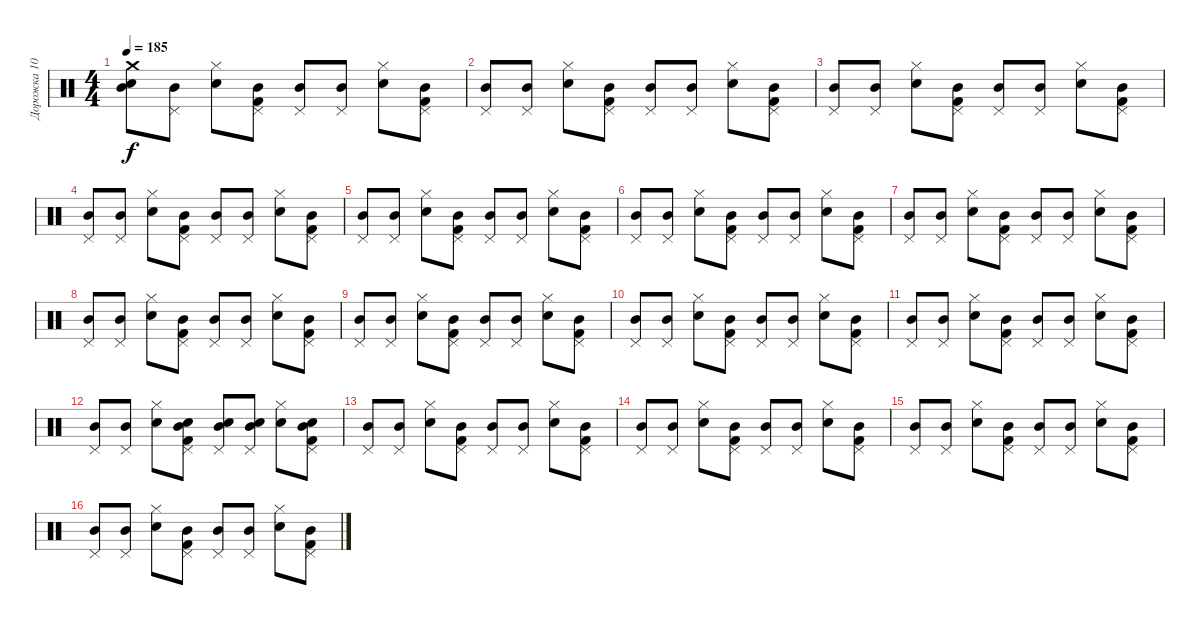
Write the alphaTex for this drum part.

\track ("Дорожка 10" "Дорожка 10") {instrument percussion}
\staff {score}
\articulation defaults
\ts (4 4)
\tempo 185
\clef neutral
\ks c
("Snare (hit) 2" "Mid Tom (hit)" "Crash medium (hit)").8{dy f} ("Mid Tom (hit)" "Pedal Hi-Hat (hit)").8 ("Snare (hit) 2" "Hi-Hat (closed)").8 ("Kick (hit) 2" "Mid Tom (hit)" "Pedal Hi-Hat (hit)").8 ("Mid Tom (hit)" "Pedal Hi-Hat (hit)").8 ("Mid Tom (hit)" "Pedal Hi-Hat (hit)").8 ("Snare (hit) 2" "Hi-Hat (closed)").8 ("Kick (hit) 2" "Mid Tom (hit)" "Pedal Hi-Hat (hit)").8 |
("Mid Tom (hit)" "Pedal Hi-Hat (hit)").8 ("Mid Tom (hit)" "Pedal Hi-Hat (hit)").8 ("Snare (hit) 2" "Hi-Hat (closed)").8 ("Kick (hit) 2" "Mid Tom (hit)" "Pedal Hi-Hat (hit)").8 ("Mid Tom (hit)" "Pedal Hi-Hat (hit)").8 ("Mid Tom (hit)" "Pedal Hi-Hat (hit)").8 ("Snare (hit) 2" "Hi-Hat (closed)").8 ("Kick (hit) 2" "Mid Tom (hit)" "Pedal Hi-Hat (hit)").8 |
("Mid Tom (hit)" "Pedal Hi-Hat (hit)").8 ("Mid Tom (hit)" "Pedal Hi-Hat (hit)").8 ("Snare (hit) 2" "Hi-Hat (closed)").8 ("Kick (hit) 2" "Mid Tom (hit)" "Pedal Hi-Hat (hit)").8 ("Mid Tom (hit)" "Pedal Hi-Hat (hit)").8 ("Mid Tom (hit)" "Pedal Hi-Hat (hit)").8 ("Snare (hit) 2" "Hi-Hat (closed)").8 ("Kick (hit) 2" "Mid Tom (hit)" "Pedal Hi-Hat (hit)").8 |
("Mid Tom (hit)" "Pedal Hi-Hat (hit)").8 ("Mid Tom (hit)" "Pedal Hi-Hat (hit)").8 ("Snare (hit) 2" "Hi-Hat (closed)").8 ("Kick (hit) 2" "Mid Tom (hit)" "Pedal Hi-Hat (hit)").8 ("Mid Tom (hit)" "Pedal Hi-Hat (hit)").8 ("Mid Tom (hit)" "Pedal Hi-Hat (hit)").8 ("Snare (hit) 2" "Hi-Hat (closed)").8 ("Kick (hit) 2" "Mid Tom (hit)" "Pedal Hi-Hat (hit)").8 |
("Mid Tom (hit)" "Pedal Hi-Hat (hit)").8 ("Mid Tom (hit)" "Pedal Hi-Hat (hit)").8 ("Snare (hit) 2" "Hi-Hat (closed)").8 ("Kick (hit) 2" "Mid Tom (hit)" "Pedal Hi-Hat (hit)").8 ("Mid Tom (hit)" "Pedal Hi-Hat (hit)").8 ("Mid Tom (hit)" "Pedal Hi-Hat (hit)").8 ("Snare (hit) 2" "Hi-Hat (closed)").8 ("Kick (hit) 2" "Mid Tom (hit)" "Pedal Hi-Hat (hit)").8 |
("Mid Tom (hit)" "Pedal Hi-Hat (hit)").8 ("Mid Tom (hit)" "Pedal Hi-Hat (hit)").8 ("Snare (hit) 2" "Hi-Hat (closed)").8 ("Kick (hit) 2" "Mid Tom (hit)" "Pedal Hi-Hat (hit)").8 ("Mid Tom (hit)" "Pedal Hi-Hat (hit)").8 ("Mid Tom (hit)" "Pedal Hi-Hat (hit)").8 ("Snare (hit) 2" "Hi-Hat (closed)").8 ("Kick (hit) 2" "Mid Tom (hit)" "Pedal Hi-Hat (hit)").8 |
("Mid Tom (hit)" "Pedal Hi-Hat (hit)").8 ("Mid Tom (hit)" "Pedal Hi-Hat (hit)").8 ("Snare (hit) 2" "Hi-Hat (closed)").8 ("Kick (hit) 2" "Mid Tom (hit)" "Pedal Hi-Hat (hit)").8 ("Mid Tom (hit)" "Pedal Hi-Hat (hit)").8 ("Mid Tom (hit)" "Pedal Hi-Hat (hit)").8 ("Snare (hit) 2" "Hi-Hat (closed)").8 ("Kick (hit) 2" "Mid Tom (hit)" "Pedal Hi-Hat (hit)").8 |
("Mid Tom (hit)" "Pedal Hi-Hat (hit)").8 ("Mid Tom (hit)" "Pedal Hi-Hat (hit)").8 ("Snare (hit) 2" "Hi-Hat (closed)").8 ("Kick (hit) 2" "Mid Tom (hit)" "Pedal Hi-Hat (hit)").8 ("Mid Tom (hit)" "Pedal Hi-Hat (hit)").8 ("Mid Tom (hit)" "Pedal Hi-Hat (hit)").8 ("Snare (hit) 2" "Hi-Hat (closed)").8 ("Kick (hit) 2" "Mid Tom (hit)" "Pedal Hi-Hat (hit)").8 |
("Mid Tom (hit)" "Pedal Hi-Hat (hit)").8 ("Mid Tom (hit)" "Pedal Hi-Hat (hit)").8 ("Snare (hit) 2" "Hi-Hat (closed)").8 ("Kick (hit) 2" "Mid Tom (hit)" "Pedal Hi-Hat (hit)").8 ("Mid Tom (hit)" "Pedal Hi-Hat (hit)").8 ("Mid Tom (hit)" "Pedal Hi-Hat (hit)").8 ("Snare (hit) 2" "Hi-Hat (closed)").8 ("Kick (hit) 2" "Mid Tom (hit)" "Pedal Hi-Hat (hit)").8 |
("Mid Tom (hit)" "Pedal Hi-Hat (hit)").8 ("Mid Tom (hit)" "Pedal Hi-Hat (hit)").8 ("Snare (hit) 2" "Hi-Hat (closed)").8 ("Kick (hit) 2" "Mid Tom (hit)" "Pedal Hi-Hat (hit)").8 ("Mid Tom (hit)" "Pedal Hi-Hat (hit)").8 ("Mid Tom (hit)" "Pedal Hi-Hat (hit)").8 ("Snare (hit) 2" "Hi-Hat (closed)").8 ("Kick (hit) 2" "Mid Tom (hit)" "Pedal Hi-Hat (hit)").8 |
("Mid Tom (hit)" "Pedal Hi-Hat (hit)").8 ("Mid Tom (hit)" "Pedal Hi-Hat (hit)").8 ("Snare (hit) 2" "Hi-Hat (closed)").8 ("Kick (hit) 2" "Mid Tom (hit)" "Pedal Hi-Hat (hit)").8 ("Mid Tom (hit)" "Pedal Hi-Hat (hit)").8 ("Mid Tom (hit)" "Pedal Hi-Hat (hit)").8 ("Snare (hit) 2" "Hi-Hat (closed)").8 ("Kick (hit) 2" "Mid Tom (hit)" "Pedal Hi-Hat (hit)").8 |
("Mid Tom (hit)" "Pedal Hi-Hat (hit)").8 ("Mid Tom (hit)" "Pedal Hi-Hat (hit)").8 ("Snare (hit) 2" "Hi-Hat (closed)").8 ("Kick (hit) 2" "Snare (hit) 2" "Mid Tom (hit)" "Pedal Hi-Hat (hit)").8 ("Snare (hit) 2" "Mid Tom (hit)" "Pedal Hi-Hat (hit)").8 ("Snare (hit) 2" "Mid Tom (hit)" "Pedal Hi-Hat (hit)").8 ("Snare (hit) 2" "Hi-Hat (closed)").8 ("Kick (hit) 2" "Snare (hit) 2" "Mid Tom (hit)" "Pedal Hi-Hat (hit)").8 |
("Mid Tom (hit)" "Pedal Hi-Hat (hit)").8 ("Mid Tom (hit)" "Pedal Hi-Hat (hit)").8 ("Snare (hit) 2" "Hi-Hat (closed)").8 ("Kick (hit) 2" "Mid Tom (hit)" "Pedal Hi-Hat (hit)").8 ("Mid Tom (hit)" "Pedal Hi-Hat (hit)").8 ("Mid Tom (hit)" "Pedal Hi-Hat (hit)").8 ("Snare (hit) 2" "Hi-Hat (closed)").8 ("Kick (hit) 2" "Mid Tom (hit)" "Pedal Hi-Hat (hit)").8 |
("Mid Tom (hit)" "Pedal Hi-Hat (hit)").8 ("Mid Tom (hit)" "Pedal Hi-Hat (hit)").8 ("Snare (hit) 2" "Hi-Hat (closed)").8 ("Kick (hit) 2" "Mid Tom (hit)" "Pedal Hi-Hat (hit)").8 ("Mid Tom (hit)" "Pedal Hi-Hat (hit)").8 ("Mid Tom (hit)" "Pedal Hi-Hat (hit)").8 ("Snare (hit) 2" "Hi-Hat (closed)").8 ("Kick (hit) 2" "Mid Tom (hit)" "Pedal Hi-Hat (hit)").8 |
("Mid Tom (hit)" "Pedal Hi-Hat (hit)").8 ("Mid Tom (hit)" "Pedal Hi-Hat (hit)").8 ("Snare (hit) 2" "Hi-Hat (closed)").8 ("Kick (hit) 2" "Mid Tom (hit)" "Pedal Hi-Hat (hit)").8 ("Mid Tom (hit)" "Pedal Hi-Hat (hit)").8 ("Mid Tom (hit)" "Pedal Hi-Hat (hit)").8 ("Snare (hit) 2" "Hi-Hat (closed)").8 ("Kick (hit) 2" "Mid Tom (hit)" "Pedal Hi-Hat (hit)").8 |
("Mid Tom (hit)" "Pedal Hi-Hat (hit)").8 ("Mid Tom (hit)" "Pedal Hi-Hat (hit)").8 ("Snare (hit) 2" "Hi-Hat (closed)").8 ("Kick (hit) 2" "Mid Tom (hit)" "Pedal Hi-Hat (hit)").8 ("Mid Tom (hit)" "Pedal Hi-Hat (hit)").8 ("Mid Tom (hit)" "Pedal Hi-Hat (hit)").8 ("Snare (hit) 2" "Hi-Hat (closed)").8 ("Kick (hit) 2" "Mid Tom (hit)" "Pedal Hi-Hat (hit)").8
